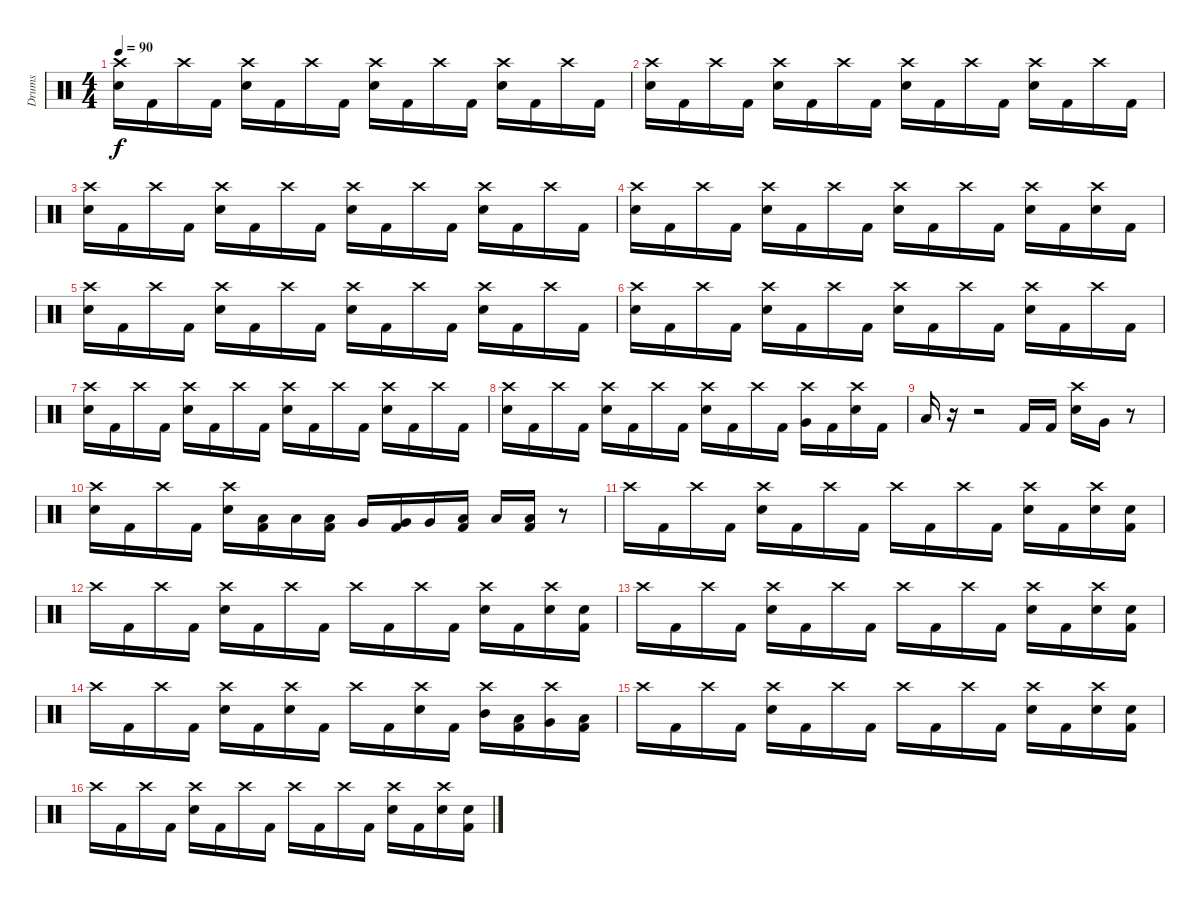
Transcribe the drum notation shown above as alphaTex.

\track ("Drums" "Drums") {instrument percussion}
\staff {score}
\articulation defaults
\ts (4 4)
\tempo 90
\clef neutral
\ks c
("Crash high (hit)" "Electric Snare (hit)").16{dy f} "Kick (hit) 2".16 "Crash high (hit)".16 "Kick (hit) 2".16 ("Crash high (hit)" "Electric Snare (hit)").16 "Kick (hit) 2".16 "Crash high (hit)".16 "Kick (hit) 2".16 ("Crash high (hit)" "Electric Snare (hit)").16 "Kick (hit) 2".16 "Crash high (hit)".16 "Kick (hit) 2".16 ("Crash high (hit)" "Electric Snare (hit)").16 "Kick (hit) 2".16 "Crash high (hit)".16 "Kick (hit) 2".16 |
("Crash high (hit)" "Electric Snare (hit)").16 "Kick (hit) 2".16 "Crash high (hit)".16 "Kick (hit) 2".16 ("Crash high (hit)" "Electric Snare (hit)").16 "Kick (hit) 2".16 "Crash high (hit)".16 "Kick (hit) 2".16 ("Crash high (hit)" "Electric Snare (hit)").16 "Kick (hit) 2".16 "Crash high (hit)".16 "Kick (hit) 2".16 ("Crash high (hit)" "Electric Snare (hit)").16 "Kick (hit) 2".16 "Crash high (hit)".16 "Kick (hit) 2".16 |
("Crash high (hit)" "Electric Snare (hit)").16 "Kick (hit) 2".16 "Crash high (hit)".16 "Kick (hit) 2".16 ("Crash high (hit)" "Electric Snare (hit)").16 "Kick (hit) 2".16 "Crash high (hit)".16 "Kick (hit) 2".16 ("Crash high (hit)" "Electric Snare (hit)").16 "Kick (hit) 2".16 "Crash high (hit)".16 "Kick (hit) 2".16 ("Crash high (hit)" "Electric Snare (hit)").16 "Kick (hit) 2".16 "Crash high (hit)".16 "Kick (hit) 2".16 |
("Crash high (hit)" "Electric Snare (hit)").16 "Kick (hit) 2".16 "Crash high (hit)".16 "Kick (hit) 2".16 ("Crash high (hit)" "Electric Snare (hit)").16 "Kick (hit) 2".16 "Crash high (hit)".16 "Kick (hit) 2".16 ("Crash high (hit)" "Electric Snare (hit)").16 "Kick (hit) 2".16 "Crash high (hit)".16 "Kick (hit) 2".16 ("Crash high (hit)" "Electric Snare (hit)").16 "Kick (hit) 2".16 ("Crash high (hit)" "Electric Snare (hit)").16 "Kick (hit) 2".16 |
("Crash high (hit)" "Electric Snare (hit)").16 "Kick (hit) 2".16 "Crash high (hit)".16 "Kick (hit) 2".16 ("Crash high (hit)" "Electric Snare (hit)").16 "Kick (hit) 2".16 "Crash high (hit)".16 "Kick (hit) 2".16 ("Crash high (hit)" "Electric Snare (hit)").16 "Kick (hit) 2".16 "Crash high (hit)".16 "Kick (hit) 2".16 ("Crash high (hit)" "Electric Snare (hit)").16 "Kick (hit) 2".16 "Crash high (hit)".16 "Kick (hit) 2".16 |
("Crash high (hit)" "Electric Snare (hit)").16 "Kick (hit) 2".16 "Crash high (hit)".16 "Kick (hit) 2".16 ("Crash high (hit)" "Electric Snare (hit)").16 "Kick (hit) 2".16 "Crash high (hit)".16 "Kick (hit) 2".16 ("Crash high (hit)" "Electric Snare (hit)").16 "Kick (hit) 2".16 "Crash high (hit)".16 "Kick (hit) 2".16 ("Crash high (hit)" "Electric Snare (hit)").16 "Kick (hit) 2".16 "Crash high (hit)".16 "Kick (hit) 2".16 |
("Crash high (hit)" "Electric Snare (hit)").16 "Kick (hit) 2".16 "Crash high (hit)".16 "Kick (hit) 2".16 ("Crash high (hit)" "Electric Snare (hit)").16 "Kick (hit) 2".16 "Crash high (hit)".16 "Kick (hit) 2".16 ("Crash high (hit)" "Electric Snare (hit)").16 "Kick (hit) 2".16 "Crash high (hit)".16 "Kick (hit) 2".16 ("Crash high (hit)" "Electric Snare (hit)").16 "Kick (hit) 2".16 "Crash high (hit)".16 "Kick (hit) 2".16 |
("Crash high (hit)" "Electric Snare (hit)").16 "Kick (hit) 2".16 "Crash high (hit)".16 "Kick (hit) 2".16 ("Crash high (hit)" "Electric Snare (hit)").16 "Kick (hit) 2".16 "Crash high (hit)".16 "Kick (hit) 2".16 ("Crash high (hit)" "Electric Snare (hit)").16 "Kick (hit) 2".16 "Crash high (hit)".16 "Kick (hit) 2".16 ("Crash high (hit)" "Very Low Tom (hit)").16 "Kick (hit) 2".16 ("Crash high (hit)" "Electric Snare (hit)").16 "Kick (hit) 2".16 |
"Low Floor Tom (hit)".16 r.16 r.2 "Kick (hit) 2".16 "Kick (hit) 2".16 ("Crash high (hit)" "Electric Snare (hit)").16 "Very Low Tom (hit)".16 r.8 |
("Crash high (hit)" "Electric Snare (hit)").16 "Kick (hit) 2".16 "Crash high (hit)".16 "Kick (hit) 2".16 ("Crash high (hit)" "Electric Snare (hit)").16 ("Low Tom (hit)" "Kick (hit) 2").16 "Low Tom (hit)".16 ("Low Tom (hit)" "Kick (hit) 2").16 "Very Low Tom (hit)".16 ("Very Low Tom (hit)" "Kick (hit) 2").16 "Very Low Tom (hit)".16 ("Low Floor Tom (hit)" "Kick (hit) 2").16 "Low Floor Tom (hit)".16 ("Low Floor Tom (hit)" "Kick (hit) 2").16 r.8 |
"Crash high (hit)".16 "Kick (hit) 2".16 "Crash high (hit)".16 "Kick (hit) 2".16 ("Crash high (hit)" "Electric Snare (hit)").16 "Kick (hit) 2".16 "Crash high (hit)".16 "Kick (hit) 2".16 "Crash high (hit)".16 "Kick (hit) 2".16 "Crash high (hit)".16 "Kick (hit) 2".16 ("Crash high (hit)" "Electric Snare (hit)").16 "Kick (hit) 2".16 ("Crash high (hit)" "Electric Snare (hit)").16 ("Electric Snare (hit)" "Kick (hit) 2").16 |
"Crash high (hit)".16 "Kick (hit) 2".16 "Crash high (hit)".16 "Kick (hit) 2".16 ("Crash high (hit)" "Electric Snare (hit)").16 "Kick (hit) 2".16 "Crash high (hit)".16 "Kick (hit) 2".16 "Crash high (hit)".16 "Kick (hit) 2".16 "Crash high (hit)".16 "Kick (hit) 2".16 ("Crash high (hit)" "Electric Snare (hit)").16 "Kick (hit) 2".16 ("Crash high (hit)" "Electric Snare (hit)").16 ("Electric Snare (hit)" "Kick (hit) 2").16 |
"Crash high (hit)".16 "Kick (hit) 2".16 "Crash high (hit)".16 "Kick (hit) 2".16 ("Crash high (hit)" "Electric Snare (hit)").16 "Kick (hit) 2".16 "Crash high (hit)".16 "Kick (hit) 2".16 "Crash high (hit)".16 "Kick (hit) 2".16 "Crash high (hit)".16 "Kick (hit) 2".16 ("Crash high (hit)" "Electric Snare (hit)").16 "Kick (hit) 2".16 ("Crash high (hit)" "Electric Snare (hit)").16 ("Electric Snare (hit)" "Kick (hit) 2").16 |
"Crash high (hit)".16 "Kick (hit) 2".16 "Crash high (hit)".16 "Kick (hit) 2".16 ("Crash high (hit)" "Electric Snare (hit)").16 "Kick (hit) 2".16 ("Crash high (hit)" "Electric Snare (hit)").16 "Kick (hit) 2".16 "Crash high (hit)".16 "Kick (hit) 2".16 ("Crash high (hit)" "Electric Snare (hit)").16 "Kick (hit) 2".16 ("Crash high (hit)" "Mid Tom (hit)").16 ("Low Tom (hit)" "Kick (hit) 2").16 ("Crash high (hit)" "Very Low Tom (hit)").16 ("Low Floor Tom (hit)" "Kick (hit) 2").16 |
"Crash high (hit)".16 "Kick (hit) 2".16 "Crash high (hit)".16 "Kick (hit) 2".16 ("Crash high (hit)" "Electric Snare (hit)").16 "Kick (hit) 2".16 "Crash high (hit)".16 "Kick (hit) 2".16 "Crash high (hit)".16 "Kick (hit) 2".16 "Crash high (hit)".16 "Kick (hit) 2".16 ("Crash high (hit)" "Electric Snare (hit)").16 "Kick (hit) 2".16 ("Crash high (hit)" "Electric Snare (hit)").16 ("Electric Snare (hit)" "Kick (hit) 2").16 |
"Crash high (hit)".16 "Kick (hit) 2".16 "Crash high (hit)".16 "Kick (hit) 2".16 ("Crash high (hit)" "Electric Snare (hit)").16 "Kick (hit) 2".16 "Crash high (hit)".16 "Kick (hit) 2".16 "Crash high (hit)".16 "Kick (hit) 2".16 "Crash high (hit)".16 "Kick (hit) 2".16 ("Crash high (hit)" "Electric Snare (hit)").16 "Kick (hit) 2".16 ("Crash high (hit)" "Electric Snare (hit)").16 ("Electric Snare (hit)" "Kick (hit) 2").16
